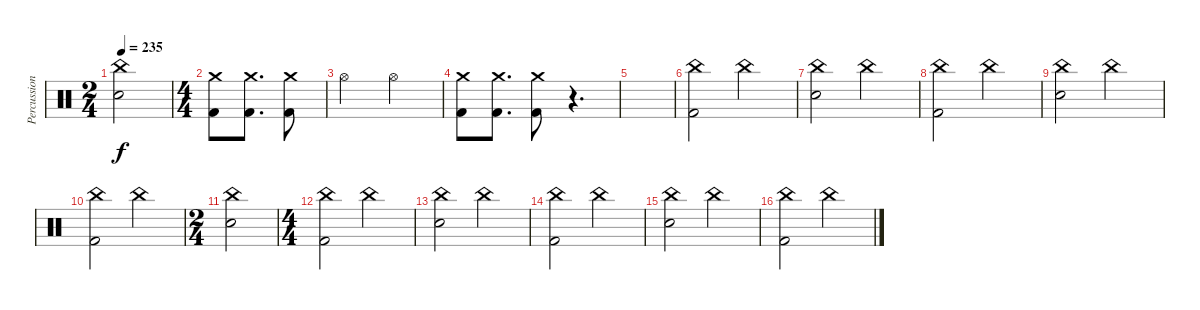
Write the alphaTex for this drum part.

\track ("Percussion" "Percussion") {instrument percussion}
\staff {score}
\articulation defaults
\ts (2 4)
\tempo 235
\clef neutral
\ks c
("China (hit)" "Snare (hit) 2").2{dy f} |
\ts (4 4)
("Crash medium (hit)" "Kick (hit) 2").8 ("Crash medium (hit)" "Kick (hit) 2").8{d} ("Crash medium (hit)" "Kick (hit) 2").8 |
"Hi-Hat (open)".2 "Hi-Hat (open)".2 |
("Crash medium (hit)" "Kick (hit) 2").8 ("Crash medium (hit)" "Kick (hit) 2").8{d} ("Crash medium (hit)" "Kick (hit) 2").8 r.4{d volume 0} |
|
("China (hit)" "Kick (hit) 2").2{volume 16} "China (hit)".2 |
("China (hit)" "Snare (hit) 2").2 "China (hit)".2 |
("China (hit)" "Kick (hit) 2").2 "China (hit)".2 |
("China (hit)" "Snare (hit) 2").2 "China (hit)".2 |
("China (hit)" "Kick (hit) 2").2 "China (hit)".2 |
\ts (2 4)
("China (hit)" "Snare (hit) 2").2 |
\ts (4 4)
("China (hit)" "Kick (hit) 2").2 "China (hit)".2 |
("China (hit)" "Snare (hit) 2").2 "China (hit)".2 |
("China (hit)" "Kick (hit) 2").2 "China (hit)".2 |
("China (hit)" "Snare (hit) 2").2 "China (hit)".2 |
("China (hit)" "Kick (hit) 2").2 "China (hit)".2
